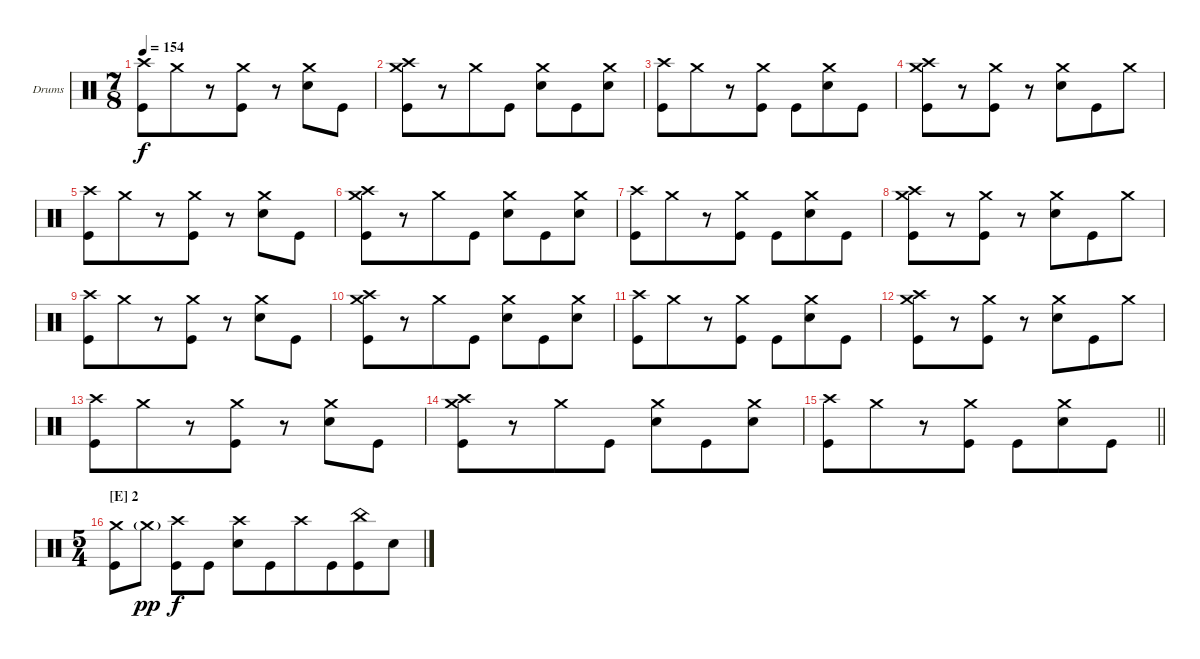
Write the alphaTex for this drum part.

\bracketExtendMode groupsimilarinstruments
\firstSystemTrackNameOrientation horizontal
\otherSystemsTrackNameOrientation horizontal
\track ("Navene Koperweis" "Drums") {instrument percussion}
\staff {score}
\articulation defaults
\ts (7 8)
\tempo 154
\clef neutral
\ks c
("Crash high (hit)" "Kick (hit)").8{dy f} "Crash medium (hit)".8 r.8 ("Crash medium (hit)" "Kick (hit)").8 r.8 ("Crash medium (hit)" "Snare (hit) 2").8 "Kick (hit)".8 |
("Crash medium (hit)" "Crash high (hit)" "Kick (hit)").8 r.8 "Crash medium (hit)".8 "Kick (hit)".8 ("Crash medium (hit)" "Snare (hit) 2").8 "Kick (hit)".8 ("Crash medium (hit)" "Snare (hit) 2").8 |
("Crash high (hit)" "Kick (hit)").8 "Crash medium (hit)".8 r.8 ("Crash medium (hit)" "Kick (hit)").8 "Kick (hit)".8 ("Crash medium (hit)" "Snare (hit) 2").8 "Kick (hit)".8 |
("Crash medium (hit)" "Crash high (hit)" "Kick (hit)").8 r.8 ("Crash medium (hit)" "Kick (hit)").8 r.8 ("Crash medium (hit)" "Snare (hit) 2").8 "Kick (hit)".8 "Crash medium (hit)".8 |
("Crash high (hit)" "Kick (hit)").8 "Crash medium (hit)".8 r.8 ("Crash medium (hit)" "Kick (hit)").8 r.8 ("Crash medium (hit)" "Snare (hit) 2").8 "Kick (hit)".8 |
("Crash medium (hit)" "Crash high (hit)" "Kick (hit)").8 r.8 "Crash medium (hit)".8 "Kick (hit)".8 ("Crash medium (hit)" "Snare (hit) 2").8 "Kick (hit)".8 ("Crash medium (hit)" "Snare (hit) 2").8 |
("Crash high (hit)" "Kick (hit)").8 "Crash medium (hit)".8 r.8 ("Crash medium (hit)" "Kick (hit)").8 "Kick (hit)".8 ("Crash medium (hit)" "Snare (hit) 2").8 "Kick (hit)".8 |
("Crash medium (hit)" "Crash high (hit)" "Kick (hit)").8 r.8 ("Crash medium (hit)" "Kick (hit)").8 r.8 ("Crash medium (hit)" "Snare (hit) 2").8 "Kick (hit)".8 "Crash medium (hit)".8 |
("Crash high (hit)" "Kick (hit)").8 "Crash medium (hit)".8 r.8 ("Crash medium (hit)" "Kick (hit)").8 r.8 ("Crash medium (hit)" "Snare (hit) 2").8 "Kick (hit)".8 |
("Crash medium (hit)" "Crash high (hit)" "Kick (hit)").8 r.8 "Crash medium (hit)".8 "Kick (hit)".8 ("Crash medium (hit)" "Snare (hit) 2").8 "Kick (hit)".8 ("Crash medium (hit)" "Snare (hit) 2").8 |
("Crash high (hit)" "Kick (hit)").8 "Crash medium (hit)".8 r.8 ("Crash medium (hit)" "Kick (hit)").8 "Kick (hit)".8 ("Crash medium (hit)" "Snare (hit) 2").8 "Kick (hit)".8 |
("Crash medium (hit)" "Crash high (hit)" "Kick (hit)").8 r.8 ("Crash medium (hit)" "Kick (hit)").8 r.8 ("Crash medium (hit)" "Snare (hit) 2").8 "Kick (hit)".8 "Crash medium (hit)".8 |
("Crash high (hit)" "Kick (hit)").8 "Crash medium (hit)".8 r.8 ("Crash medium (hit)" "Kick (hit)").8 r.8 ("Crash medium (hit)" "Snare (hit) 2").8 "Kick (hit)".8 |
("Crash medium (hit)" "Crash high (hit)" "Kick (hit)").8 r.8 "Crash medium (hit)".8 "Kick (hit)".8 ("Crash medium (hit)" "Snare (hit) 2").8 "Kick (hit)".8 ("Crash medium (hit)" "Snare (hit) 2").8 |
\barLineRight lightlight
("Crash high (hit)" "Kick (hit)").8 "Crash medium (hit)".8 r.8 ("Crash medium (hit)" "Kick (hit)").8 "Kick (hit)".8 ("Crash medium (hit)" "Snare (hit) 2").8 "Kick (hit)".8 |
\ts (5 4)
\beaming (8 2 2 6)
\section ("E" "2")
("Crash medium (hit)" "Kick (hit)").8 "Crash medium (hit)"{g}.8{dy pp} ("Crash high (hit)" "Kick (hit)").8{dy f} "Kick (hit)".8 ("Crash high (hit)" "Snare (hit) 2").8 "Kick (hit)".8 "Crash high (hit)".8 "Kick (hit)".8 ("China (hit)" "Kick (hit)").8 "Snare (hit) 2".8
